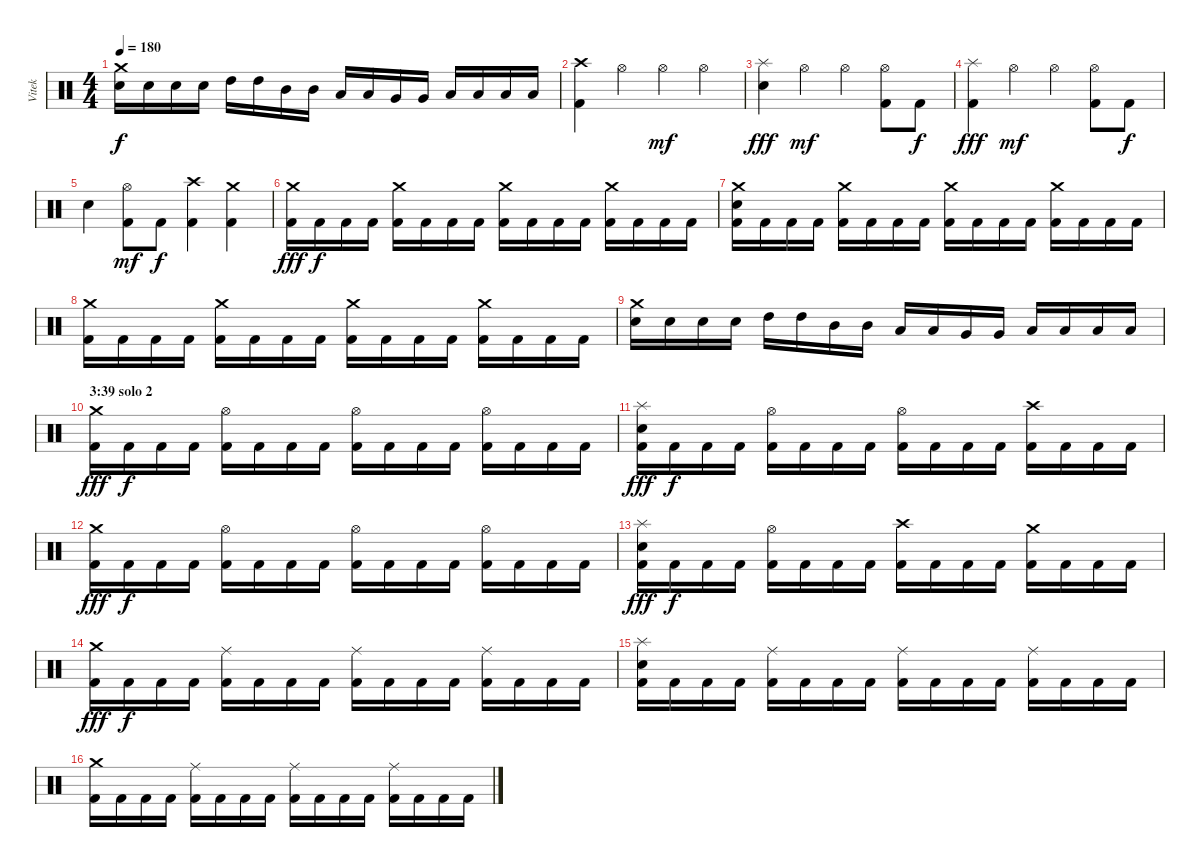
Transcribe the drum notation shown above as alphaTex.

\track ("Vitek" "Vitek") {instrument percussion}
\staff {score}
\articulation defaults
\ts (4 4)
\tempo 180
\clef neutral
\ks c
("Crash medium (hit)" "Electric Snare (hit)").16{dy f} "Electric Snare (hit)".16 "Electric Snare (hit)".16 "Electric Snare (hit)".16 "High Tom (hit)".16 "High Tom (hit)".16 "Mid Tom (hit)".16 "Mid Tom (hit)".16 "Low Tom (hit)".16 "Low Tom (hit)".16 "Very Low Tom (hit)".16 "Very Low Tom (hit)".16 "Low Floor Tom (hit)".16 "Low Floor Tom (hit)".16 "Low Floor Tom (hit)".16 "Low Floor Tom (hit)".16 |
("Crash high (hit)" "Kick (hit) 2").4 "Hi-Hat (open)".4 "Hi-Hat (open)".4{dy mf} "Hi-Hat (open)".4 |
("Splash (hit)" "Electric Snare (hit)").4{dy fff} "Hi-Hat (open)".4{dy mf} "Hi-Hat (open)".4 ("Hi-Hat (open)" "Kick (hit) 2").8 "Kick (hit) 2".8{dy f} |
("Splash (hit)" "Kick (hit) 2").4{dy fff} "Hi-Hat (open)".4{dy mf} "Hi-Hat (open)".4 ("Hi-Hat (open)" "Kick (hit) 2").8 "Kick (hit) 2".8{dy f} |
"Electric Snare (hit)".4 ("Hi-Hat (open)" "Kick (hit) 2").8{dy mf} "Kick (hit) 2".8{dy f} ("Crash high (hit)" "Kick (hit) 2").4 ("Crash medium (hit)" "Kick (hit) 2").4 |
("Crash medium (hit)" "Kick (hit) 2").16{dy fff} "Kick (hit) 2".16{dy f} "Kick (hit) 2".16 "Kick (hit) 2".16 ("Crash medium (hit)" "Kick (hit) 2").16 "Kick (hit) 2".16 "Kick (hit) 2".16 "Kick (hit) 2".16 ("Crash medium (hit)" "Kick (hit) 2").16 "Kick (hit) 2".16 "Kick (hit) 2".16 "Kick (hit) 2".16 ("Crash medium (hit)" "Kick (hit) 2").16 "Kick (hit) 2".16 "Kick (hit) 2".16 "Kick (hit) 2".16 |
("Crash medium (hit)" "Electric Snare (hit)" "Kick (hit) 2").16 "Kick (hit) 2".16 "Kick (hit) 2".16 "Kick (hit) 2".16 ("Crash medium (hit)" "Kick (hit) 2").16 "Kick (hit) 2".16 "Kick (hit) 2".16 "Kick (hit) 2".16 ("Crash medium (hit)" "Kick (hit) 2").16 "Kick (hit) 2".16 "Kick (hit) 2".16 "Kick (hit) 2".16 ("Crash medium (hit)" "Kick (hit) 2").16 "Kick (hit) 2".16 "Kick (hit) 2".16 "Kick (hit) 2".16 |
("Crash medium (hit)" "Kick (hit) 2").16 "Kick (hit) 2".16 "Kick (hit) 2".16 "Kick (hit) 2".16 ("Crash medium (hit)" "Kick (hit) 2").16 "Kick (hit) 2".16 "Kick (hit) 2".16 "Kick (hit) 2".16 ("Crash medium (hit)" "Kick (hit) 2").16 "Kick (hit) 2".16 "Kick (hit) 2".16 "Kick (hit) 2".16 ("Crash medium (hit)" "Kick (hit) 2").16 "Kick (hit) 2".16 "Kick (hit) 2".16 "Kick (hit) 2".16 |
("Crash medium (hit)" "Electric Snare (hit)").16 "Electric Snare (hit)".16 "Electric Snare (hit)".16 "Electric Snare (hit)".16 "High Tom (hit)".16 "High Tom (hit)".16 "Mid Tom (hit)".16 "Mid Tom (hit)".16 "Low Tom (hit)".16 "Low Tom (hit)".16 "Very Low Tom (hit)".16 "Very Low Tom (hit)".16 "Low Floor Tom (hit)".16 "Low Floor Tom (hit)".16 "Low Floor Tom (hit)".16 "Low Floor Tom (hit)".16 |
\section ("" "3:39 solo 2")
("Crash medium (hit)" "Kick (hit) 2").16{dy fff} "Kick (hit) 2".16{dy f} "Kick (hit) 2".16 "Kick (hit) 2".16 ("Hi-Hat (open)" "Kick (hit) 2").16 "Kick (hit) 2".16 "Kick (hit) 2".16 "Kick (hit) 2".16 ("Hi-Hat (open)" "Kick (hit) 2").16 "Kick (hit) 2".16 "Kick (hit) 2".16 "Kick (hit) 2".16 ("Hi-Hat (open)" "Kick (hit) 2").16 "Kick (hit) 2".16 "Kick (hit) 2".16 "Kick (hit) 2".16 |
("Splash (hit)" "Electric Snare (hit)" "Kick (hit) 2").16{dy fff} "Kick (hit) 2".16{dy f} "Kick (hit) 2".16 "Kick (hit) 2".16 ("Hi-Hat (open)" "Kick (hit) 2").16 "Kick (hit) 2".16 "Kick (hit) 2".16 "Kick (hit) 2".16 ("Hi-Hat (open)" "Kick (hit) 2").16 "Kick (hit) 2".16 "Kick (hit) 2".16 "Kick (hit) 2".16 ("Crash high (hit)" "Kick (hit) 2").16 "Kick (hit) 2".16 "Kick (hit) 2".16 "Kick (hit) 2".16 |
("Crash medium (hit)" "Kick (hit) 2").16{dy fff} "Kick (hit) 2".16{dy f} "Kick (hit) 2".16 "Kick (hit) 2".16 ("Hi-Hat (open)" "Kick (hit) 2").16 "Kick (hit) 2".16 "Kick (hit) 2".16 "Kick (hit) 2".16 ("Hi-Hat (open)" "Kick (hit) 2").16 "Kick (hit) 2".16 "Kick (hit) 2".16 "Kick (hit) 2".16 ("Hi-Hat (open)" "Kick (hit) 2").16 "Kick (hit) 2".16 "Kick (hit) 2".16 "Kick (hit) 2".16 |
("Splash (hit)" "Electric Snare (hit)" "Kick (hit) 2").16{dy fff} "Kick (hit) 2".16{dy f} "Kick (hit) 2".16 "Kick (hit) 2".16 ("Hi-Hat (open)" "Kick (hit) 2").16 "Kick (hit) 2".16 "Kick (hit) 2".16 "Kick (hit) 2".16 ("Crash high (hit)" "Kick (hit) 2").16 "Kick (hit) 2".16 "Kick (hit) 2".16 "Kick (hit) 2".16 ("Crash medium (hit)" "Kick (hit) 2").16 "Kick (hit) 2".16 "Kick (hit) 2".16 "Kick (hit) 2".16 |
("Crash medium (hit)" "Kick (hit) 2").16{dy fff} "Kick (hit) 2".16{dy f} "Kick (hit) 2".16 "Kick (hit) 2".16 ("Ride (middle)" "Kick (hit) 2").16 "Kick (hit) 2".16 "Kick (hit) 2".16 "Kick (hit) 2".16 ("Ride (middle)" "Kick (hit) 2").16 "Kick (hit) 2".16 "Kick (hit) 2".16 "Kick (hit) 2".16 ("Ride (middle)" "Kick (hit) 2").16 "Kick (hit) 2".16 "Kick (hit) 2".16 "Kick (hit) 2".16 |
("Splash (hit)" "Electric Snare (hit)" "Kick (hit) 2").16 "Kick (hit) 2".16 "Kick (hit) 2".16 "Kick (hit) 2".16 ("Ride (middle)" "Kick (hit) 2").16 "Kick (hit) 2".16 "Kick (hit) 2".16 "Kick (hit) 2".16 ("Ride (middle)" "Kick (hit) 2").16 "Kick (hit) 2".16 "Kick (hit) 2".16 "Kick (hit) 2".16 ("Ride (middle)" "Kick (hit) 2").16 "Kick (hit) 2".16 "Kick (hit) 2".16 "Kick (hit) 2".16 |
("Crash medium (hit)" "Kick (hit) 2").16 "Kick (hit) 2".16 "Kick (hit) 2".16 "Kick (hit) 2".16 ("Ride (middle)" "Kick (hit) 2").16 "Kick (hit) 2".16 "Kick (hit) 2".16 "Kick (hit) 2".16 ("Ride (middle)" "Kick (hit) 2").16 "Kick (hit) 2".16 "Kick (hit) 2".16 "Kick (hit) 2".16 ("Ride (middle)" "Kick (hit) 2").16 "Kick (hit) 2".16 "Kick (hit) 2".16 "Kick (hit) 2".16
